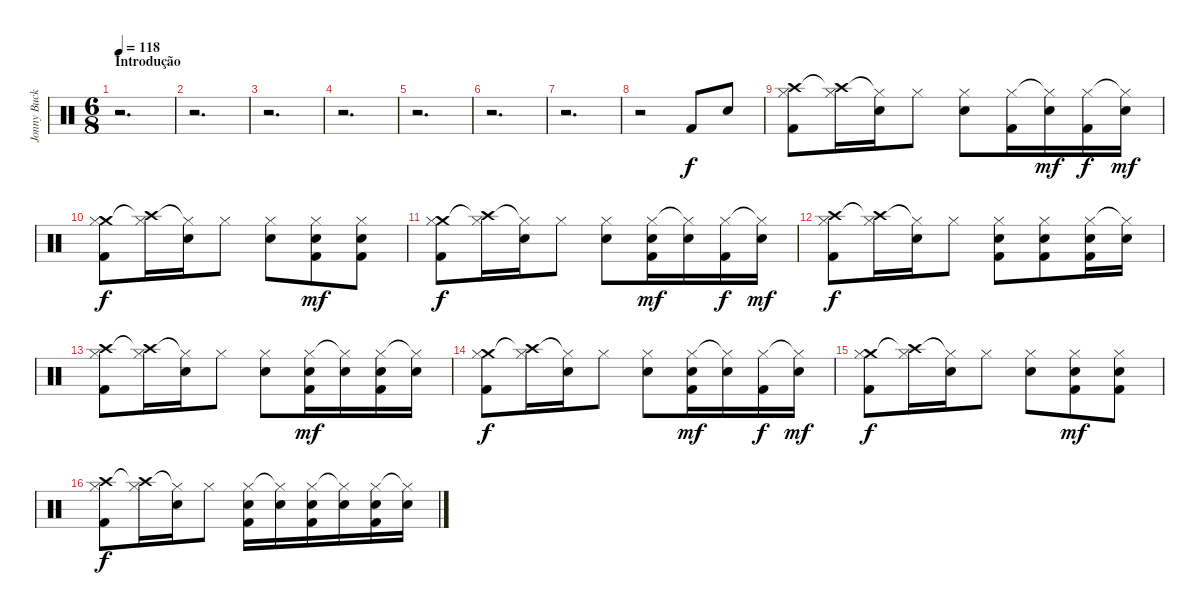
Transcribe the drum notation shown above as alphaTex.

\track ("Jonny Buckland (batera)" "Jonny Buck") {instrument percussion}
\staff {score}
\articulation defaults
\ts (6 8)
\section ("" "Introdução")
\tempo 118
\clef neutral
\ks c
r.2{d dy f} |
r.2{d} |
r.2{d} |
r.2{d} |
r.2{d} |
r.2{d} |
r.2{d} |
r.2 "Kick (hit) 2".8 "Electric Snare (hit)".8 |
("Crash high (hit)" "Hi-Hat (closed)" "Kick (hit) 2").8 ("Crash high (hit)"{t} "Hi-Hat (closed)").16 ("Hi-Hat (closed)"{t} "Electric Snare (hit)").16 "Hi-Hat (closed)".8 ("Hi-Hat (closed)" "Electric Snare (hit)").8 ("Hi-Hat (closed)" "Kick (hit) 2").16 ("Hi-Hat (closed)"{t} "Snare (hit) 2").16{dy mf} ("Hi-Hat (closed)" "Kick (hit) 2").16{dy f} ("Hi-Hat (closed)"{t} "Snare (hit) 2").16{dy mf} |
("Crash medium (hit)" "Hi-Hat (closed)" "Kick (hit) 2").8{dy f} ("Crash high (hit)"{t} "Hi-Hat (closed)").16 ("Hi-Hat (closed)"{t} "Electric Snare (hit)").16 "Hi-Hat (closed)".8 ("Hi-Hat (closed)" "Electric Snare (hit)").8 ("Hi-Hat (closed)" "Snare (hit) 2" "Kick (hit) 2").8{dy mf} ("Hi-Hat (closed)" "Snare (hit) 2" "Kick (hit) 2").8 |
("Crash medium (hit)" "Hi-Hat (closed)" "Kick (hit) 2").8{dy f} ("Crash high (hit)"{t} "Hi-Hat (closed)").16 ("Hi-Hat (closed)"{t} "Electric Snare (hit)").16 "Hi-Hat (closed)".8 ("Hi-Hat (closed)" "Electric Snare (hit)").8 ("Hi-Hat (closed)" "Snare (hit) 2" "Kick (hit) 2").16{dy mf} ("Hi-Hat (closed)"{t} "Snare (hit) 2").16 ("Hi-Hat (closed)" "Kick (hit) 2").16{dy f} ("Hi-Hat (closed)"{t} "Snare (hit) 2").16{dy mf} |
("Crash high (hit)" "Hi-Hat (closed)" "Kick (hit) 2").8{dy f} ("Crash high (hit)"{t} "Hi-Hat (closed)").16 ("Hi-Hat (closed)"{t} "Electric Snare (hit)").16 "Hi-Hat (closed)".8 ("Hi-Hat (closed)" "Electric Snare (hit)" "Kick (hit) 2").8 ("Hi-Hat (closed)" "Electric Snare (hit)" "Kick (hit) 2").8 ("Hi-Hat (closed)" "Electric Snare (hit)" "Kick (hit) 2").16 ("Hi-Hat (closed)"{t} "Electric Snare (hit)").16 |
("Crash high (hit)" "Hi-Hat (closed)" "Kick (hit) 2").8 ("Crash high (hit)"{t} "Hi-Hat (closed)").16 ("Hi-Hat (closed)"{t} "Electric Snare (hit)").16 "Hi-Hat (closed)".8 ("Hi-Hat (closed)" "Electric Snare (hit)").8 ("Hi-Hat (closed)" "Snare (hit) 2" "Kick (hit) 2").16{dy mf} ("Hi-Hat (closed)"{t} "Snare (hit) 2").16 ("Hi-Hat (closed)" "Snare (hit) 2" "Kick (hit) 2").16 ("Hi-Hat (closed)"{t} "Snare (hit) 2").16 |
("Crash medium (hit)" "Hi-Hat (closed)" "Kick (hit) 2").8{dy f} ("Crash high (hit)"{t} "Hi-Hat (closed)").16 ("Hi-Hat (closed)"{t} "Electric Snare (hit)").16 "Hi-Hat (closed)".8 ("Hi-Hat (closed)" "Electric Snare (hit)").8 ("Hi-Hat (closed)" "Snare (hit) 2" "Kick (hit) 2").16{dy mf} ("Hi-Hat (closed)"{t} "Snare (hit) 2").16 ("Hi-Hat (closed)" "Kick (hit) 2").16{dy f} ("Hi-Hat (closed)"{t} "Snare (hit) 2").16{dy mf} |
("Crash medium (hit)" "Hi-Hat (closed)" "Kick (hit) 2").8{dy f} ("Crash high (hit)"{t} "Hi-Hat (closed)").16 ("Hi-Hat (closed)"{t} "Electric Snare (hit)").16 "Hi-Hat (closed)".8 ("Hi-Hat (closed)" "Electric Snare (hit)").8 ("Hi-Hat (closed)" "Snare (hit) 2" "Kick (hit) 2").8{dy mf} ("Hi-Hat (closed)" "Snare (hit) 2" "Kick (hit) 2").8 |
("Crash high (hit)" "Hi-Hat (closed)" "Kick (hit) 2").8{dy f} ("Crash high (hit)"{t} "Hi-Hat (closed)").16 ("Hi-Hat (closed)"{t} "Electric Snare (hit)").16 "Hi-Hat (closed)".8 ("Hi-Hat (closed)" "Electric Snare (hit)" "Kick (hit) 2").16 ("Hi-Hat (closed)"{t} "Electric Snare (hit)").16 ("Hi-Hat (closed)" "Electric Snare (hit)" "Kick (hit) 2").16 ("Hi-Hat (closed)"{t} "Electric Snare (hit)").16 ("Hi-Hat (closed)" "Snare (hit) 2" "Kick (hit) 2").16 ("Hi-Hat (closed)"{t} "Snare (hit) 2").16
